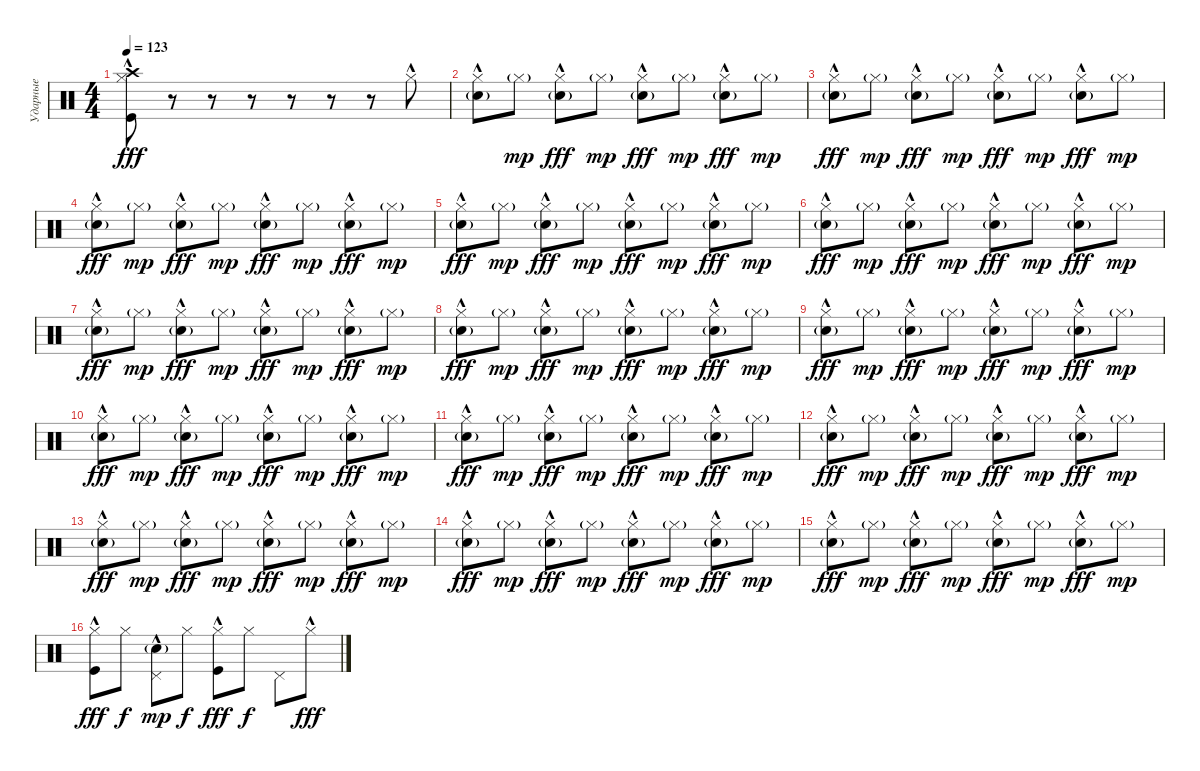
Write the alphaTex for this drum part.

\track ("Ударные" "Ударные") {instrument percussion}
\staff {score}
\articulation defaults
\ts (4 4)
\tempo 123
\clef neutral
\ks c
("Crash high (hit)" "Kick (hit)" "Hi-Hat (closed)"{hac}).8{dy fff} r.8 r.8 r.8 r.8 r.8 r.8 "Hi-Hat (closed)"{hac}.8 |
("Electric Snare (hit)"{g} "Hi-Hat (closed)"{hac}).8 "Hi-Hat (closed)"{g}.8{dy mp} ("Electric Snare (hit)"{g} "Hi-Hat (closed)"{hac}).8{dy fff} "Hi-Hat (closed)"{g}.8{dy mp} ("Electric Snare (hit)"{g} "Hi-Hat (closed)"{hac}).8{dy fff} "Hi-Hat (closed)"{g}.8{dy mp} ("Electric Snare (hit)"{g} "Hi-Hat (closed)"{hac}).8{dy fff} "Hi-Hat (closed)"{g}.8{dy mp} |
("Electric Snare (hit)"{g} "Hi-Hat (closed)"{hac}).8{dy fff} "Hi-Hat (closed)"{g}.8{dy mp} ("Electric Snare (hit)"{g} "Hi-Hat (closed)"{hac}).8{dy fff} "Hi-Hat (closed)"{g}.8{dy mp} ("Electric Snare (hit)"{g} "Hi-Hat (closed)"{hac}).8{dy fff} "Hi-Hat (closed)"{g}.8{dy mp} ("Electric Snare (hit)"{g} "Hi-Hat (closed)"{hac}).8{dy fff} "Hi-Hat (closed)"{g}.8{dy mp} |
("Electric Snare (hit)"{g} "Hi-Hat (closed)"{hac}).8{dy fff} "Hi-Hat (closed)"{g}.8{dy mp} ("Electric Snare (hit)"{g} "Hi-Hat (closed)"{hac}).8{dy fff} "Hi-Hat (closed)"{g}.8{dy mp} ("Electric Snare (hit)"{g} "Hi-Hat (closed)"{hac}).8{dy fff} "Hi-Hat (closed)"{g}.8{dy mp} ("Electric Snare (hit)"{g} "Hi-Hat (closed)"{hac}).8{dy fff} "Hi-Hat (closed)"{g}.8{dy mp} |
("Electric Snare (hit)"{g} "Hi-Hat (closed)"{hac}).8{dy fff} "Hi-Hat (closed)"{g}.8{dy mp} ("Electric Snare (hit)"{g} "Hi-Hat (closed)"{hac}).8{dy fff} "Hi-Hat (closed)"{g}.8{dy mp} ("Electric Snare (hit)"{g} "Hi-Hat (closed)"{hac}).8{dy fff} "Hi-Hat (closed)"{g}.8{dy mp} ("Electric Snare (hit)"{g} "Hi-Hat (closed)"{hac}).8{dy fff} "Hi-Hat (closed)"{g}.8{dy mp} |
("Electric Snare (hit)"{g} "Hi-Hat (closed)"{hac}).8{dy fff} "Hi-Hat (closed)"{g}.8{dy mp} ("Electric Snare (hit)"{g} "Hi-Hat (closed)"{hac}).8{dy fff} "Hi-Hat (closed)"{g}.8{dy mp} ("Electric Snare (hit)"{g} "Hi-Hat (closed)"{hac}).8{dy fff} "Hi-Hat (closed)"{g}.8{dy mp} ("Electric Snare (hit)"{g} "Hi-Hat (closed)"{hac}).8{dy fff} "Hi-Hat (closed)"{g}.8{dy mp} |
("Electric Snare (hit)"{g} "Hi-Hat (closed)"{hac}).8{dy fff} "Hi-Hat (closed)"{g}.8{dy mp} ("Electric Snare (hit)"{g} "Hi-Hat (closed)"{hac}).8{dy fff} "Hi-Hat (closed)"{g}.8{dy mp} ("Electric Snare (hit)"{g} "Hi-Hat (closed)"{hac}).8{dy fff} "Hi-Hat (closed)"{g}.8{dy mp} ("Electric Snare (hit)"{g} "Hi-Hat (closed)"{hac}).8{dy fff} "Hi-Hat (closed)"{g}.8{dy mp} |
("Electric Snare (hit)"{g} "Hi-Hat (closed)"{hac}).8{dy fff} "Hi-Hat (closed)"{g}.8{dy mp} ("Electric Snare (hit)"{g} "Hi-Hat (closed)"{hac}).8{dy fff} "Hi-Hat (closed)"{g}.8{dy mp} ("Electric Snare (hit)"{g} "Hi-Hat (closed)"{hac}).8{dy fff} "Hi-Hat (closed)"{g}.8{dy mp} ("Electric Snare (hit)"{g} "Hi-Hat (closed)"{hac}).8{dy fff} "Hi-Hat (closed)"{g}.8{dy mp} |
("Electric Snare (hit)"{g} "Hi-Hat (closed)"{hac}).8{dy fff} "Hi-Hat (closed)"{g}.8{dy mp} ("Electric Snare (hit)"{g} "Hi-Hat (closed)"{hac}).8{dy fff} "Hi-Hat (closed)"{g}.8{dy mp} ("Electric Snare (hit)"{g} "Hi-Hat (closed)"{hac}).8{dy fff} "Hi-Hat (closed)"{g}.8{dy mp} ("Electric Snare (hit)"{g} "Hi-Hat (closed)"{hac}).8{dy fff} "Hi-Hat (closed)"{g}.8{dy mp} |
("Electric Snare (hit)"{g} "Hi-Hat (closed)"{hac}).8{dy fff} "Hi-Hat (closed)"{g}.8{dy mp} ("Electric Snare (hit)"{g} "Hi-Hat (closed)"{hac}).8{dy fff} "Hi-Hat (closed)"{g}.8{dy mp} ("Electric Snare (hit)"{g} "Hi-Hat (closed)"{hac}).8{dy fff} "Hi-Hat (closed)"{g}.8{dy mp} ("Electric Snare (hit)"{g} "Hi-Hat (closed)"{hac}).8{dy fff} "Hi-Hat (closed)"{g}.8{dy mp} |
("Electric Snare (hit)"{g} "Hi-Hat (closed)"{hac}).8{dy fff} "Hi-Hat (closed)"{g}.8{dy mp} ("Electric Snare (hit)"{g} "Hi-Hat (closed)"{hac}).8{dy fff} "Hi-Hat (closed)"{g}.8{dy mp} ("Electric Snare (hit)"{g} "Hi-Hat (closed)"{hac}).8{dy fff} "Hi-Hat (closed)"{g}.8{dy mp} ("Electric Snare (hit)"{g} "Hi-Hat (closed)"{hac}).8{dy fff} "Hi-Hat (closed)"{g}.8{dy mp} |
("Electric Snare (hit)"{g} "Hi-Hat (closed)"{hac}).8{dy fff} "Hi-Hat (closed)"{g}.8{dy mp} ("Electric Snare (hit)"{g} "Hi-Hat (closed)"{hac}).8{dy fff} "Hi-Hat (closed)"{g}.8{dy mp} ("Electric Snare (hit)"{g} "Hi-Hat (closed)"{hac}).8{dy fff} "Hi-Hat (closed)"{g}.8{dy mp} ("Electric Snare (hit)"{g} "Hi-Hat (closed)"{hac}).8{dy fff} "Hi-Hat (closed)"{g}.8{dy mp} |
("Electric Snare (hit)"{g} "Hi-Hat (closed)"{hac}).8{dy fff} "Hi-Hat (closed)"{g}.8{dy mp} ("Electric Snare (hit)"{g} "Hi-Hat (closed)"{hac}).8{dy fff} "Hi-Hat (closed)"{g}.8{dy mp} ("Electric Snare (hit)"{g} "Hi-Hat (closed)"{hac}).8{dy fff} "Hi-Hat (closed)"{g}.8{dy mp} ("Electric Snare (hit)"{g} "Hi-Hat (closed)"{hac}).8{dy fff} "Hi-Hat (closed)"{g}.8{dy mp} |
("Electric Snare (hit)"{g} "Hi-Hat (closed)"{hac}).8{dy fff} "Hi-Hat (closed)"{g}.8{dy mp} ("Electric Snare (hit)"{g} "Hi-Hat (closed)"{hac}).8{dy fff} "Hi-Hat (closed)"{g}.8{dy mp} ("Electric Snare (hit)"{g} "Hi-Hat (closed)"{hac}).8{dy fff} "Hi-Hat (closed)"{g}.8{dy mp} ("Electric Snare (hit)"{g} "Hi-Hat (closed)"{hac}).8{dy fff} "Hi-Hat (closed)"{g}.8{dy mp} |
("Electric Snare (hit)"{g} "Hi-Hat (closed)"{hac}).8{dy fff} "Hi-Hat (closed)"{g}.8{dy mp} ("Electric Snare (hit)"{g} "Hi-Hat (closed)"{hac}).8{dy fff} "Hi-Hat (closed)"{g}.8{dy mp} ("Electric Snare (hit)"{g} "Hi-Hat (closed)"{hac}).8{dy fff} "Hi-Hat (closed)"{g}.8{dy mp} ("Electric Snare (hit)"{g} "Hi-Hat (closed)"{hac}).8{dy fff} "Hi-Hat (closed)"{g}.8{dy mp} |
("Kick (hit)" "Hi-Hat (closed)"{hac}).8{dy fff} "Hi-Hat (closed)".8{dy f} ("Pedal Hi-Hat (hit)"{hac} "Electric Snare (hit)"{g}).8{dy mp} "Hi-Hat (closed)".8{dy f} ("Kick (hit)" "Hi-Hat (closed)"{hac}).8{dy fff} "Hi-Hat (closed)".8{dy f} "Pedal Hi-Hat (hit)".8 "Hi-Hat (closed)"{hac}.8{dy fff}
